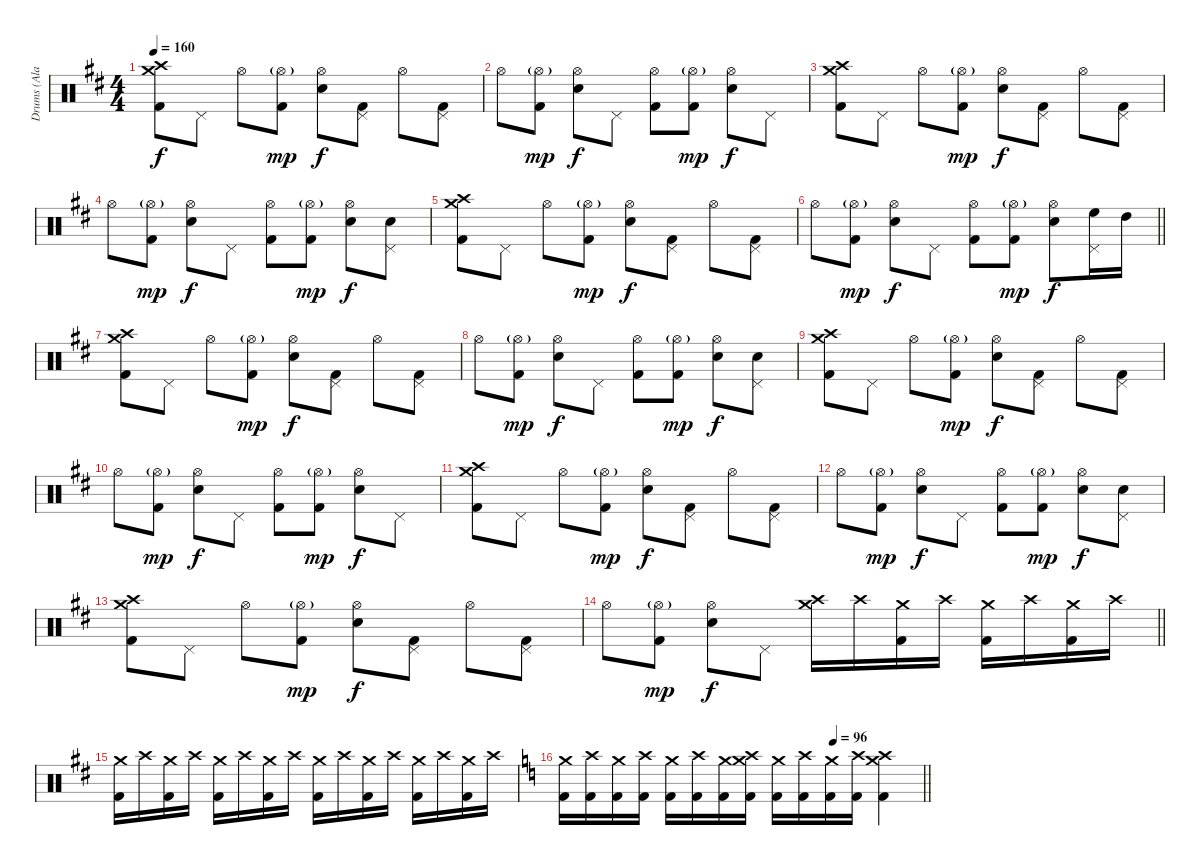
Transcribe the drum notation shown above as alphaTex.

\track ("Drums (Ala Pyle)" "Drums (Ala") {instrument percussion}
\staff {score}
\articulation defaults
\ts (4 4)
\tempo 160
\clef neutral
\ks d
("Crash medium (hit)" "Crash high (hit)" "Kick (hit) 2").8{dy f} "Pedal Hi-Hat (hit)".8 "Hi-Hat (open)".8 ("Hi-Hat (open)"{g} "Kick (hit) 2").8{dy mp} ("Snare (hit) 2" "Hi-Hat (open)").8{dy f} ("Pedal Hi-Hat (hit)" "Kick (hit) 2").8 "Hi-Hat (open)".8 ("Pedal Hi-Hat (hit)" "Kick (hit) 2").8 |
"Hi-Hat (open)".8 ("Hi-Hat (open)"{g} "Kick (hit) 2").8{dy mp} ("Snare (hit) 2" "Hi-Hat (open)").8{dy f} "Pedal Hi-Hat (hit)".8 ("Hi-Hat (open)" "Kick (hit) 2").8 ("Hi-Hat (open)"{g} "Kick (hit) 2").8{dy mp} ("Snare (hit) 2" "Hi-Hat (open)").8{dy f} "Pedal Hi-Hat (hit)".8 |
("Crash medium (hit)" "Crash high (hit)" "Kick (hit) 2").8 "Pedal Hi-Hat (hit)".8 "Hi-Hat (open)".8 ("Hi-Hat (open)"{g} "Kick (hit) 2").8{dy mp} ("Snare (hit) 2" "Hi-Hat (open)").8{dy f} ("Pedal Hi-Hat (hit)" "Kick (hit) 2").8 "Hi-Hat (open)".8 ("Pedal Hi-Hat (hit)" "Kick (hit) 2").8 |
"Hi-Hat (open)".8 ("Hi-Hat (open)"{g} "Kick (hit) 2").8{dy mp} ("Snare (hit) 2" "Hi-Hat (open)").8{dy f} "Pedal Hi-Hat (hit)".8 ("Hi-Hat (open)" "Kick (hit) 2").8 ("Hi-Hat (open)"{g} "Kick (hit) 2").8{dy mp} ("Snare (hit) 2" "Hi-Hat (open)").8{dy f} ("Snare (hit) 2" "Pedal Hi-Hat (hit)").8 |
("Crash medium (hit)" "Crash high (hit)" "Kick (hit) 2").8 "Pedal Hi-Hat (hit)".8 "Hi-Hat (open)".8 ("Hi-Hat (open)"{g} "Kick (hit) 2").8{dy mp} ("Snare (hit) 2" "Hi-Hat (open)").8{dy f} ("Pedal Hi-Hat (hit)" "Kick (hit) 2").8 "Hi-Hat (open)".8 ("Pedal Hi-Hat (hit)" "Kick (hit) 2").8 |
\barLineRight lightlight "Hi-Hat (open)".8
("Hi-Hat (open)"{g} "Kick (hit) 2").8{dy mp} ("Snare (hit) 2" "Hi-Hat (open)").8{dy f} "Pedal Hi-Hat (hit)".8 ("Hi-Hat (open)" "Kick (hit) 2").8 ("Hi-Hat (open)"{g} "Kick (hit) 2").8{dy mp} ("Snare (hit) 2" "Hi-Hat (open)").8{dy f} ("Pedal Hi-Hat (hit)" "High Floor Tom (hit)").16 "High Tom (hit)".16 |
("Crash medium (hit)" "Crash high (hit)" "Kick (hit) 2").8 "Pedal Hi-Hat (hit)".8 "Hi-Hat (open)".8 ("Hi-Hat (open)"{g} "Kick (hit) 2").8{dy mp} ("Snare (hit) 2" "Hi-Hat (open)").8{dy f} ("Pedal Hi-Hat (hit)" "Kick (hit) 2").8 "Hi-Hat (open)".8 ("Pedal Hi-Hat (hit)" "Kick (hit) 2").8 |
"Hi-Hat (open)".8 ("Hi-Hat (open)"{g} "Kick (hit) 2").8{dy mp} ("Snare (hit) 2" "Hi-Hat (open)").8{dy f} "Pedal Hi-Hat (hit)".8 ("Hi-Hat (open)" "Kick (hit) 2").8 ("Hi-Hat (open)"{g} "Kick (hit) 2").8{dy mp} ("Snare (hit) 2" "Hi-Hat (open)").8{dy f} ("Snare (hit) 2" "Pedal Hi-Hat (hit)").8 |
("Crash medium (hit)" "Crash high (hit)" "Kick (hit) 2").8 "Pedal Hi-Hat (hit)".8 "Hi-Hat (open)".8 ("Hi-Hat (open)"{g} "Kick (hit) 2").8{dy mp} ("Snare (hit) 2" "Hi-Hat (open)").8{dy f} ("Pedal Hi-Hat (hit)" "Kick (hit) 2").8 "Hi-Hat (open)".8 ("Pedal Hi-Hat (hit)" "Kick (hit) 2").8 |
"Hi-Hat (open)".8 ("Hi-Hat (open)"{g} "Kick (hit) 2").8{dy mp} ("Snare (hit) 2" "Hi-Hat (open)").8{dy f} "Pedal Hi-Hat (hit)".8 ("Hi-Hat (open)" "Kick (hit) 2").8 ("Hi-Hat (open)"{g} "Kick (hit) 2").8{dy mp} ("Snare (hit) 2" "Hi-Hat (open)").8{dy f} "Pedal Hi-Hat (hit)".8 |
("Crash medium (hit)" "Crash high (hit)" "Kick (hit) 2").8 "Pedal Hi-Hat (hit)".8 "Hi-Hat (open)".8 ("Hi-Hat (open)"{g} "Kick (hit) 2").8{dy mp} ("Snare (hit) 2" "Hi-Hat (open)").8{dy f} ("Pedal Hi-Hat (hit)" "Kick (hit) 2").8 "Hi-Hat (open)".8 ("Pedal Hi-Hat (hit)" "Kick (hit) 2").8 |
"Hi-Hat (open)".8 ("Hi-Hat (open)"{g} "Kick (hit) 2").8{dy mp} ("Snare (hit) 2" "Hi-Hat (open)").8{dy f} "Pedal Hi-Hat (hit)".8 ("Hi-Hat (open)" "Kick (hit) 2").8 ("Hi-Hat (open)"{g} "Kick (hit) 2").8{dy mp} ("Snare (hit) 2" "Hi-Hat (open)").8{dy f} ("Snare (hit) 2" "Pedal Hi-Hat (hit)").8 |
("Crash medium (hit)" "Crash high (hit)" "Kick (hit) 2").8 "Pedal Hi-Hat (hit)".8 "Hi-Hat (open)".8 ("Hi-Hat (open)"{g} "Kick (hit) 2").8{dy mp} ("Snare (hit) 2" "Hi-Hat (open)").8{dy f} ("Pedal Hi-Hat (hit)" "Kick (hit) 2").8 "Hi-Hat (open)".8 ("Pedal Hi-Hat (hit)" "Kick (hit) 2").8 |
\barLineRight lightlight "Hi-Hat (open)".8
("Hi-Hat (open)"{g} "Kick (hit) 2").8{dy mp} ("Snare (hit) 2" "Hi-Hat (open)").8{dy f} "Pedal Hi-Hat (hit)".8 ("Crash medium (hit)" "Crash high (hit)").16 "Crash high (hit)".16 ("Crash medium (hit)" "Kick (hit) 2").16 "Crash high (hit)".16 ("Crash medium (hit)" "Kick (hit) 2").16 "Crash high (hit)".16 ("Crash medium (hit)" "Kick (hit) 2").16 "Crash high (hit)".16 |
("Crash medium (hit)" "Kick (hit) 2").16 "Crash high (hit)".16 ("Crash medium (hit)" "Kick (hit) 2").16 "Crash high (hit)".16 ("Crash medium (hit)" "Kick (hit) 2").16 "Crash high (hit)".16 ("Crash medium (hit)" "Kick (hit) 2").16 "Crash high (hit)".16 ("Crash medium (hit)" "Kick (hit) 2").16 "Crash high (hit)".16 ("Crash medium (hit)" "Kick (hit) 2").16 "Crash high (hit)".16 ("Crash medium (hit)" "Kick (hit) 2").16 "Crash high (hit)".16 ("Crash medium (hit)" "Kick (hit) 2").16 "Crash high (hit)".16 |
\tempo (96 0.75)
\barLineRight lightlight
\ks c
("Crash medium (hit)" "Kick (hit) 2").16 ("Crash high (hit)" "Kick (hit) 2").16 ("Crash medium (hit)" "Kick (hit) 2").16 ("Crash high (hit)" "Kick (hit) 2").16 ("Crash medium (hit)" "Kick (hit) 2").16 ("Crash high (hit)" "Kick (hit) 2").16 ("Crash medium (hit)" "Kick (hit) 2").16 ("Crash high (hit)" "Crash medium (hit)" "Kick (hit) 2").16 ("Crash medium (hit)" "Kick (hit) 2").16 ("Crash high (hit)" "Kick (hit) 2").16 ("Crash medium (hit)" "Kick (hit) 2").16 ("Crash high (hit)" "Kick (hit) 2").16 ("Crash medium (hit)" "Crash high (hit)" "Kick (hit) 2").4
